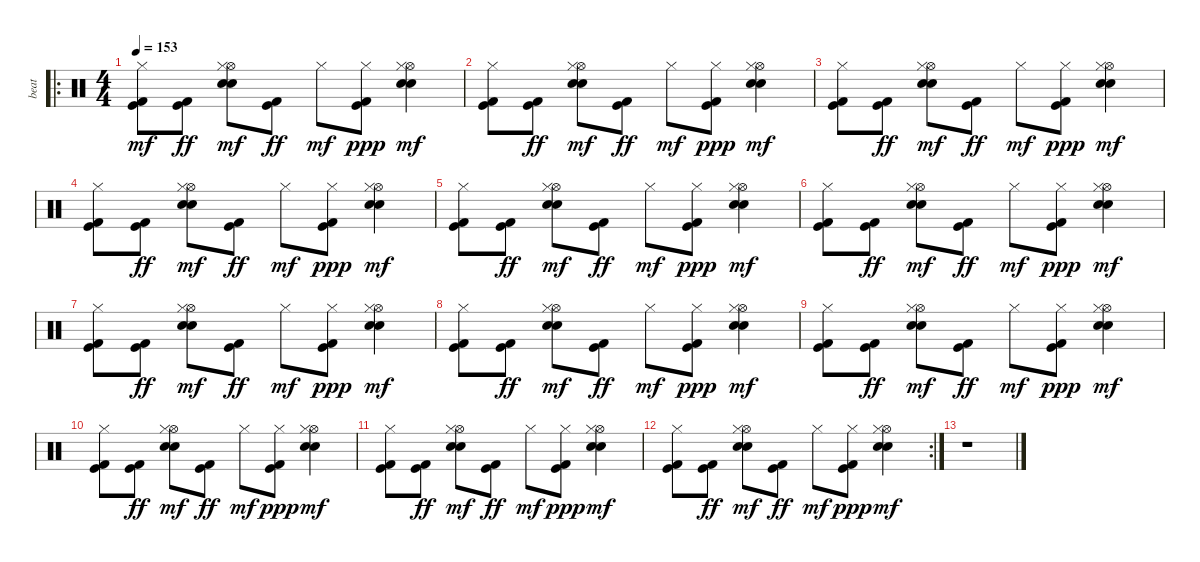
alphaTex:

\track ("beat" "beat") {instrument percussion}
\staff {score}
\articulation defaults
\ro
\ts (4 4)
\tempo 153
\clef neutral
\ks c
("Kick (hit)" "Kick (hit) 2" "Hi-Hat (closed)").8{dy mf} ("Kick (hit)" "Kick (hit) 2").8{dy ff} ("Snare (hit) 2" "Electric Snare (hit)" "Hi-Hat (open)" "Hi-Hat (closed)").8{dy mf} ("Kick (hit)" "Kick (hit) 2").8{dy ff} "Hi-Hat (closed)".8{dy mf} ("Kick (hit)" "Kick (hit) 2" "Hi-Hat (closed)").8{dy ppp} ("Snare (hit) 2" "Electric Snare (hit)" "Hi-Hat (open)" "Hi-Hat (closed)").4{dy mf} |
("Kick (hit)" "Kick (hit) 2" "Hi-Hat (closed)").8 ("Kick (hit)" "Kick (hit) 2").8{dy ff} ("Snare (hit) 2" "Electric Snare (hit)" "Hi-Hat (open)" "Hi-Hat (closed)").8{dy mf} ("Kick (hit)" "Kick (hit) 2").8{dy ff} "Hi-Hat (closed)".8{dy mf} ("Kick (hit)" "Kick (hit) 2" "Hi-Hat (closed)").8{dy ppp} ("Snare (hit) 2" "Electric Snare (hit)" "Hi-Hat (open)" "Hi-Hat (closed)").4{dy mf} |
("Kick (hit)" "Kick (hit) 2" "Hi-Hat (closed)").8 ("Kick (hit)" "Kick (hit) 2").8{dy ff} ("Snare (hit) 2" "Electric Snare (hit)" "Hi-Hat (open)" "Hi-Hat (closed)").8{dy mf} ("Kick (hit)" "Kick (hit) 2").8{dy ff} "Hi-Hat (closed)".8{dy mf} ("Kick (hit)" "Kick (hit) 2" "Hi-Hat (closed)").8{dy ppp} ("Snare (hit) 2" "Electric Snare (hit)" "Hi-Hat (open)" "Hi-Hat (closed)").4{dy mf} |
("Kick (hit)" "Kick (hit) 2" "Hi-Hat (closed)").8 ("Kick (hit)" "Kick (hit) 2").8{dy ff} ("Snare (hit) 2" "Electric Snare (hit)" "Hi-Hat (open)" "Hi-Hat (closed)").8{dy mf} ("Kick (hit)" "Kick (hit) 2").8{dy ff} "Hi-Hat (closed)".8{dy mf} ("Kick (hit)" "Kick (hit) 2" "Hi-Hat (closed)").8{dy ppp} ("Snare (hit) 2" "Electric Snare (hit)" "Hi-Hat (open)" "Hi-Hat (closed)").4{dy mf} |
("Kick (hit)" "Kick (hit) 2" "Hi-Hat (closed)").8 ("Kick (hit)" "Kick (hit) 2").8{dy ff} ("Snare (hit) 2" "Electric Snare (hit)" "Hi-Hat (open)" "Hi-Hat (closed)").8{dy mf} ("Kick (hit)" "Kick (hit) 2").8{dy ff} "Hi-Hat (closed)".8{dy mf} ("Kick (hit)" "Kick (hit) 2" "Hi-Hat (closed)").8{dy ppp} ("Snare (hit) 2" "Electric Snare (hit)" "Hi-Hat (open)" "Hi-Hat (closed)").4{dy mf} |
("Kick (hit)" "Kick (hit) 2" "Hi-Hat (closed)").8 ("Kick (hit)" "Kick (hit) 2").8{dy ff} ("Snare (hit) 2" "Electric Snare (hit)" "Hi-Hat (open)" "Hi-Hat (closed)").8{dy mf} ("Kick (hit)" "Kick (hit) 2").8{dy ff} "Hi-Hat (closed)".8{dy mf} ("Kick (hit)" "Kick (hit) 2" "Hi-Hat (closed)").8{dy ppp} ("Snare (hit) 2" "Electric Snare (hit)" "Hi-Hat (open)" "Hi-Hat (closed)").4{dy mf} |
("Kick (hit)" "Kick (hit) 2" "Hi-Hat (closed)").8 ("Kick (hit)" "Kick (hit) 2").8{dy ff} ("Snare (hit) 2" "Electric Snare (hit)" "Hi-Hat (open)" "Hi-Hat (closed)").8{dy mf} ("Kick (hit)" "Kick (hit) 2").8{dy ff} "Hi-Hat (closed)".8{dy mf} ("Kick (hit)" "Kick (hit) 2" "Hi-Hat (closed)").8{dy ppp} ("Snare (hit) 2" "Electric Snare (hit)" "Hi-Hat (open)" "Hi-Hat (closed)").4{dy mf} |
("Kick (hit)" "Kick (hit) 2" "Hi-Hat (closed)").8 ("Kick (hit)" "Kick (hit) 2").8{dy ff} ("Snare (hit) 2" "Electric Snare (hit)" "Hi-Hat (open)" "Hi-Hat (closed)").8{dy mf} ("Kick (hit)" "Kick (hit) 2").8{dy ff} "Hi-Hat (closed)".8{dy mf} ("Kick (hit)" "Kick (hit) 2" "Hi-Hat (closed)").8{dy ppp} ("Snare (hit) 2" "Electric Snare (hit)" "Hi-Hat (open)" "Hi-Hat (closed)").4{dy mf} |
("Kick (hit)" "Kick (hit) 2" "Hi-Hat (closed)").8 ("Kick (hit)" "Kick (hit) 2").8{dy ff} ("Snare (hit) 2" "Electric Snare (hit)" "Hi-Hat (open)" "Hi-Hat (closed)").8{dy mf} ("Kick (hit)" "Kick (hit) 2").8{dy ff} "Hi-Hat (closed)".8{dy mf} ("Kick (hit)" "Kick (hit) 2" "Hi-Hat (closed)").8{dy ppp} ("Snare (hit) 2" "Electric Snare (hit)" "Hi-Hat (open)" "Hi-Hat (closed)").4{dy mf} |
("Kick (hit)" "Kick (hit) 2" "Hi-Hat (closed)").8 ("Kick (hit)" "Kick (hit) 2").8{dy ff} ("Snare (hit) 2" "Electric Snare (hit)" "Hi-Hat (open)" "Hi-Hat (closed)").8{dy mf} ("Kick (hit)" "Kick (hit) 2").8{dy ff} "Hi-Hat (closed)".8{dy mf} ("Kick (hit)" "Kick (hit) 2" "Hi-Hat (closed)").8{dy ppp} ("Snare (hit) 2" "Electric Snare (hit)" "Hi-Hat (open)" "Hi-Hat (closed)").4{dy mf} |
("Kick (hit)" "Kick (hit) 2" "Hi-Hat (closed)").8 ("Kick (hit)" "Kick (hit) 2").8{dy ff} ("Snare (hit) 2" "Electric Snare (hit)" "Hi-Hat (open)" "Hi-Hat (closed)").8{dy mf} ("Kick (hit)" "Kick (hit) 2").8{dy ff} "Hi-Hat (closed)".8{dy mf} ("Kick (hit)" "Kick (hit) 2" "Hi-Hat (closed)").8{dy ppp} ("Snare (hit) 2" "Electric Snare (hit)" "Hi-Hat (open)" "Hi-Hat (closed)").4{dy mf} |
\rc 2
("Kick (hit)" "Kick (hit) 2" "Hi-Hat (closed)").8 ("Kick (hit)" "Kick (hit) 2").8{dy ff} ("Snare (hit) 2" "Electric Snare (hit)" "Hi-Hat (open)" "Hi-Hat (closed)").8{dy mf} ("Kick (hit)" "Kick (hit) 2").8{dy ff} "Hi-Hat (closed)".8{dy mf} ("Kick (hit)" "Kick (hit) 2" "Hi-Hat (closed)").8{dy ppp} ("Snare (hit) 2" "Electric Snare (hit)" "Hi-Hat (open)" "Hi-Hat (closed)").4{dy mf} |
r.1
